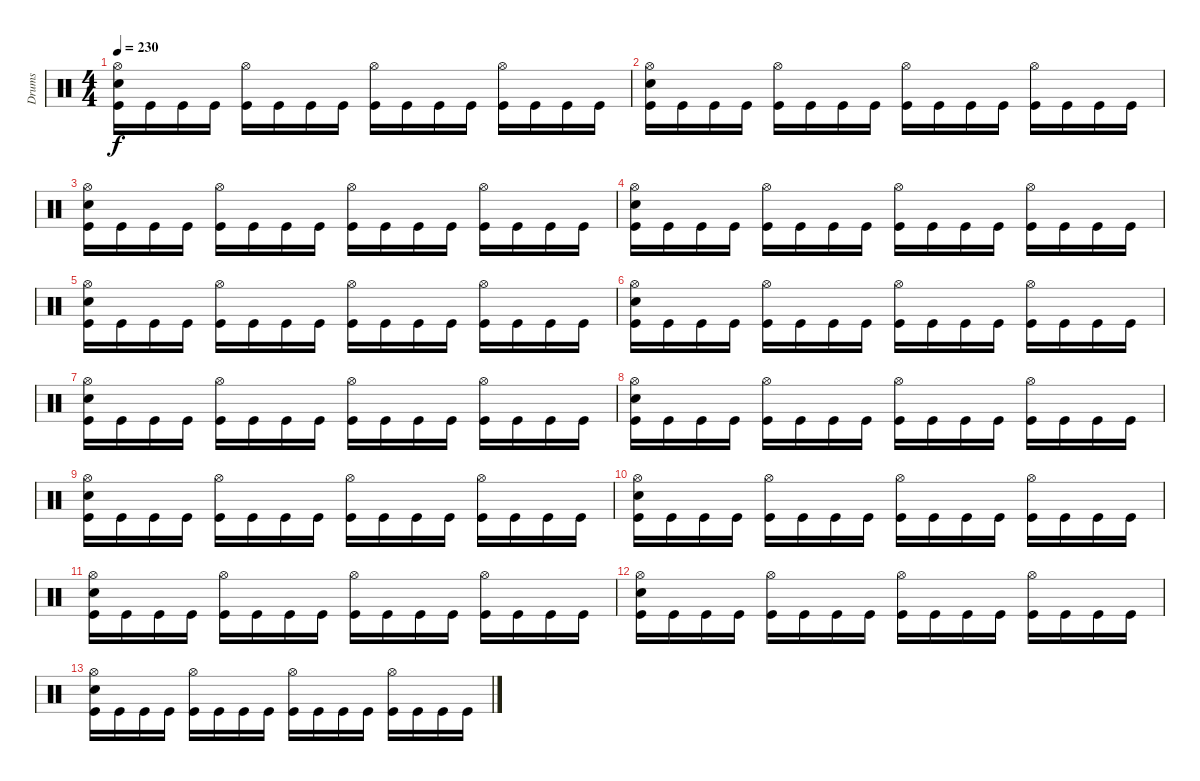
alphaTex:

\track ("Drums" "Drums") {instrument percussion}
\staff {score}
\articulation defaults
\ts (4 4)
\tempo 230
\clef neutral
\ks c
("Hi-Hat (open)" "Electric Snare (hit)" "Kick (hit)").16{dy f} "Kick (hit)".16 "Kick (hit)".16 "Kick (hit)".16 ("Hi-Hat (open)" "Kick (hit)").16 "Kick (hit)".16 "Kick (hit)".16 "Kick (hit)".16 ("Hi-Hat (open)" "Kick (hit)").16 "Kick (hit)".16 "Kick (hit)".16 "Kick (hit)".16 ("Hi-Hat (open)" "Kick (hit)").16 "Kick (hit)".16 "Kick (hit)".16 "Kick (hit)".16 |
("Hi-Hat (open)" "Electric Snare (hit)" "Kick (hit)").16 "Kick (hit)".16 "Kick (hit)".16 "Kick (hit)".16 ("Hi-Hat (open)" "Kick (hit)").16 "Kick (hit)".16 "Kick (hit)".16 "Kick (hit)".16 ("Hi-Hat (open)" "Kick (hit)").16 "Kick (hit)".16 "Kick (hit)".16 "Kick (hit)".16 ("Hi-Hat (open)" "Kick (hit)").16 "Kick (hit)".16 "Kick (hit)".16 "Kick (hit)".16 |
("Hi-Hat (open)" "Electric Snare (hit)" "Kick (hit)").16 "Kick (hit)".16 "Kick (hit)".16 "Kick (hit)".16 ("Hi-Hat (open)" "Kick (hit)").16 "Kick (hit)".16 "Kick (hit)".16 "Kick (hit)".16 ("Hi-Hat (open)" "Kick (hit)").16 "Kick (hit)".16 "Kick (hit)".16 "Kick (hit)".16 ("Hi-Hat (open)" "Kick (hit)").16 "Kick (hit)".16 "Kick (hit)".16 "Kick (hit)".16 |
("Hi-Hat (open)" "Electric Snare (hit)" "Kick (hit)").16 "Kick (hit)".16 "Kick (hit)".16 "Kick (hit)".16 ("Hi-Hat (open)" "Kick (hit)").16 "Kick (hit)".16 "Kick (hit)".16 "Kick (hit)".16 ("Hi-Hat (open)" "Kick (hit)").16 "Kick (hit)".16 "Kick (hit)".16 "Kick (hit)".16 ("Hi-Hat (open)" "Kick (hit)").16 "Kick (hit)".16 "Kick (hit)".16 "Kick (hit)".16 |
("Hi-Hat (open)" "Electric Snare (hit)" "Kick (hit)").16 "Kick (hit)".16 "Kick (hit)".16 "Kick (hit)".16 ("Hi-Hat (open)" "Kick (hit)").16 "Kick (hit)".16 "Kick (hit)".16 "Kick (hit)".16 ("Hi-Hat (open)" "Kick (hit)").16 "Kick (hit)".16 "Kick (hit)".16 "Kick (hit)".16 ("Hi-Hat (open)" "Kick (hit)").16 "Kick (hit)".16 "Kick (hit)".16 "Kick (hit)".16 |
("Hi-Hat (open)" "Electric Snare (hit)" "Kick (hit)").16 "Kick (hit)".16 "Kick (hit)".16 "Kick (hit)".16 ("Hi-Hat (open)" "Kick (hit)").16 "Kick (hit)".16 "Kick (hit)".16 "Kick (hit)".16 ("Hi-Hat (open)" "Kick (hit)").16 "Kick (hit)".16 "Kick (hit)".16 "Kick (hit)".16 ("Hi-Hat (open)" "Kick (hit)").16 "Kick (hit)".16 "Kick (hit)".16 "Kick (hit)".16 |
("Hi-Hat (open)" "Electric Snare (hit)" "Kick (hit)").16 "Kick (hit)".16 "Kick (hit)".16 "Kick (hit)".16 ("Hi-Hat (open)" "Kick (hit)").16 "Kick (hit)".16 "Kick (hit)".16 "Kick (hit)".16 ("Hi-Hat (open)" "Kick (hit)").16 "Kick (hit)".16 "Kick (hit)".16 "Kick (hit)".16 ("Hi-Hat (open)" "Kick (hit)").16 "Kick (hit)".16 "Kick (hit)".16 "Kick (hit)".16 |
("Hi-Hat (open)" "Electric Snare (hit)" "Kick (hit)").16 "Kick (hit)".16 "Kick (hit)".16 "Kick (hit)".16 ("Hi-Hat (open)" "Kick (hit)").16 "Kick (hit)".16 "Kick (hit)".16 "Kick (hit)".16 ("Hi-Hat (open)" "Kick (hit)").16 "Kick (hit)".16 "Kick (hit)".16 "Kick (hit)".16 ("Hi-Hat (open)" "Kick (hit)").16 "Kick (hit)".16 "Kick (hit)".16 "Kick (hit)".16 |
("Hi-Hat (open)" "Electric Snare (hit)" "Kick (hit)").16 "Kick (hit)".16 "Kick (hit)".16 "Kick (hit)".16 ("Hi-Hat (open)" "Kick (hit)").16 "Kick (hit)".16 "Kick (hit)".16 "Kick (hit)".16 ("Hi-Hat (open)" "Kick (hit)").16 "Kick (hit)".16 "Kick (hit)".16 "Kick (hit)".16 ("Hi-Hat (open)" "Kick (hit)").16 "Kick (hit)".16 "Kick (hit)".16 "Kick (hit)".16 |
("Hi-Hat (open)" "Electric Snare (hit)" "Kick (hit)").16 "Kick (hit)".16 "Kick (hit)".16 "Kick (hit)".16 ("Hi-Hat (open)" "Kick (hit)").16 "Kick (hit)".16 "Kick (hit)".16 "Kick (hit)".16 ("Hi-Hat (open)" "Kick (hit)").16 "Kick (hit)".16 "Kick (hit)".16 "Kick (hit)".16 ("Hi-Hat (open)" "Kick (hit)").16 "Kick (hit)".16 "Kick (hit)".16 "Kick (hit)".16 |
("Hi-Hat (open)" "Electric Snare (hit)" "Kick (hit)").16 "Kick (hit)".16 "Kick (hit)".16 "Kick (hit)".16 ("Hi-Hat (open)" "Kick (hit)").16 "Kick (hit)".16 "Kick (hit)".16 "Kick (hit)".16 ("Hi-Hat (open)" "Kick (hit)").16 "Kick (hit)".16 "Kick (hit)".16 "Kick (hit)".16 ("Hi-Hat (open)" "Kick (hit)").16 "Kick (hit)".16 "Kick (hit)".16 "Kick (hit)".16 |
("Hi-Hat (open)" "Electric Snare (hit)" "Kick (hit)").16 "Kick (hit)".16 "Kick (hit)".16 "Kick (hit)".16 ("Hi-Hat (open)" "Kick (hit)").16 "Kick (hit)".16 "Kick (hit)".16 "Kick (hit)".16 ("Hi-Hat (open)" "Kick (hit)").16 "Kick (hit)".16 "Kick (hit)".16 "Kick (hit)".16 ("Hi-Hat (open)" "Kick (hit)").16 "Kick (hit)".16 "Kick (hit)".16 "Kick (hit)".16 |
("Hi-Hat (open)" "Electric Snare (hit)" "Kick (hit)").16 "Kick (hit)".16 "Kick (hit)".16 "Kick (hit)".16 ("Hi-Hat (open)" "Kick (hit)").16 "Kick (hit)".16 "Kick (hit)".16 "Kick (hit)".16 ("Hi-Hat (open)" "Kick (hit)").16 "Kick (hit)".16 "Kick (hit)".16 "Kick (hit)".16 ("Hi-Hat (open)" "Kick (hit)").16 "Kick (hit)".16 "Kick (hit)".16 "Kick (hit)".16
